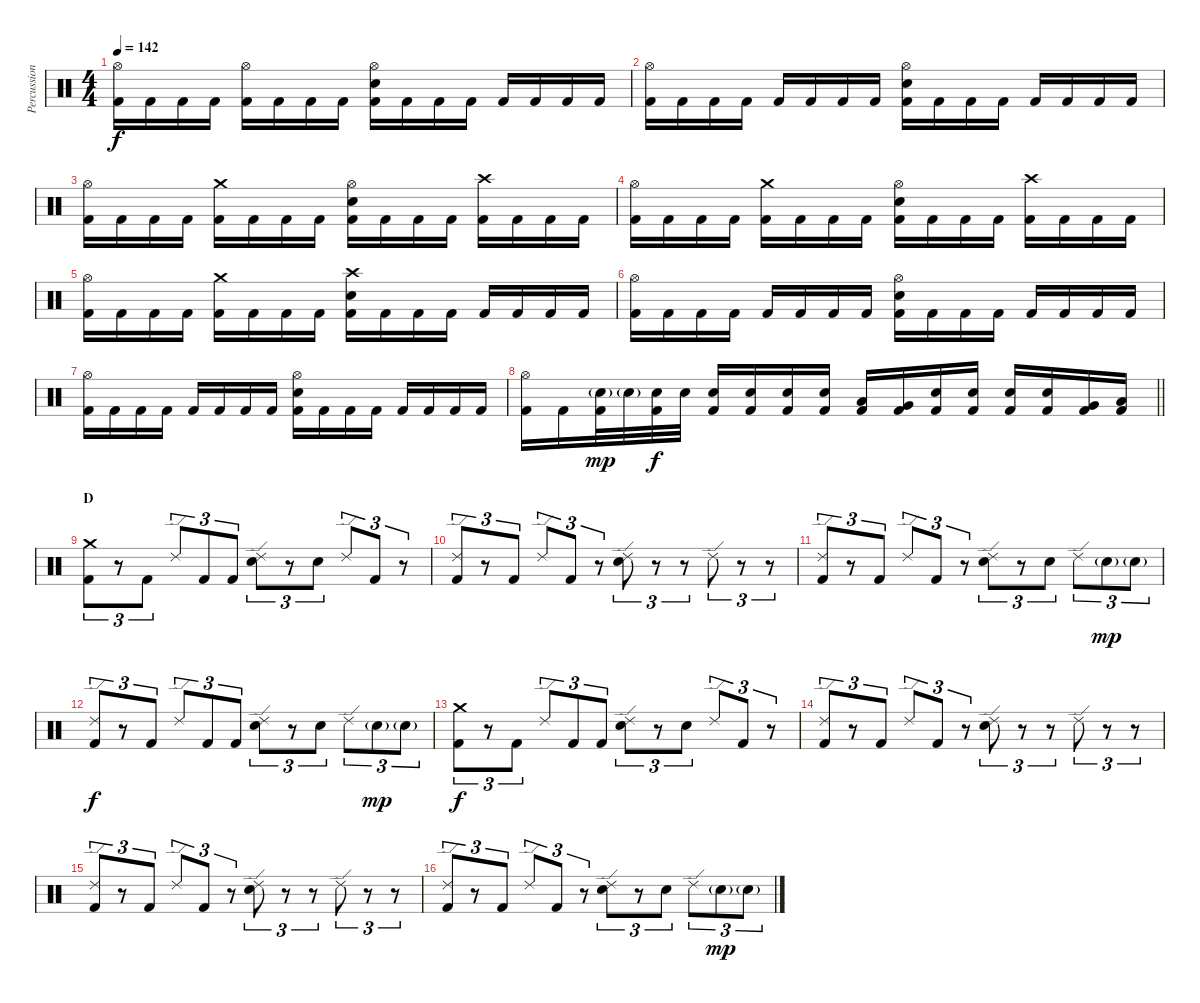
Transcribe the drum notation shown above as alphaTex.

\track ("Percussion" "Percussion") {instrument percussion}
\staff {score}
\articulation defaults
\ts (4 4)
\tempo 142
\clef neutral
\ks c
("Hi-Hat (open)" "Kick (hit) 2").16{dy f} "Kick (hit) 2".16 "Kick (hit) 2".16 "Kick (hit) 2".16 ("Hi-Hat (open)" "Kick (hit) 2").16 "Kick (hit) 2".16 "Kick (hit) 2".16 "Kick (hit) 2".16 ("Hi-Hat (open)" "Electric Snare (hit)" "Kick (hit) 2").16 "Kick (hit) 2".16 "Kick (hit) 2".16 "Kick (hit) 2".16 "Kick (hit) 2".16 "Kick (hit) 2".16 "Kick (hit) 2".16 "Kick (hit) 2".16 |
("Hi-Hat (open)" "Kick (hit) 2").16 "Kick (hit) 2".16 "Kick (hit) 2".16 "Kick (hit) 2".16 "Kick (hit) 2".16 "Kick (hit) 2".16 "Kick (hit) 2".16 "Kick (hit) 2".16 ("Hi-Hat (open)" "Electric Snare (hit)" "Kick (hit) 2").16 "Kick (hit) 2".16 "Kick (hit) 2".16 "Kick (hit) 2".16 "Kick (hit) 2".16 "Kick (hit) 2".16 "Kick (hit) 2".16 "Kick (hit) 2".16 |
("Hi-Hat (open)" "Kick (hit) 2").16 "Kick (hit) 2".16 "Kick (hit) 2".16 "Kick (hit) 2".16 ("Crash medium (hit)" "Kick (hit) 2").16 "Kick (hit) 2".16 "Kick (hit) 2".16 "Kick (hit) 2".16 ("Hi-Hat (open)" "Electric Snare (hit)" "Kick (hit) 2").16 "Kick (hit) 2".16 "Kick (hit) 2".16 "Kick (hit) 2".16 ("Crash high (hit)" "Kick (hit) 2").16 "Kick (hit) 2".16 "Kick (hit) 2".16 "Kick (hit) 2".16 |
("Hi-Hat (open)" "Kick (hit) 2").16 "Kick (hit) 2".16 "Kick (hit) 2".16 "Kick (hit) 2".16 ("Crash medium (hit)" "Kick (hit) 2").16 "Kick (hit) 2".16 "Kick (hit) 2".16 "Kick (hit) 2".16 ("Hi-Hat (open)" "Electric Snare (hit)" "Kick (hit) 2").16 "Kick (hit) 2".16 "Kick (hit) 2".16 "Kick (hit) 2".16 ("Crash high (hit)" "Kick (hit) 2").16 "Kick (hit) 2".16 "Kick (hit) 2".16 "Kick (hit) 2".16 |
("Hi-Hat (open)" "Kick (hit) 2").16 "Kick (hit) 2".16 "Kick (hit) 2".16 "Kick (hit) 2".16 ("Crash medium (hit)" "Kick (hit) 2").16 "Kick (hit) 2".16 "Kick (hit) 2".16 "Kick (hit) 2".16 ("Crash high (hit)" "Electric Snare (hit)" "Kick (hit) 2").16 "Kick (hit) 2".16 "Kick (hit) 2".16 "Kick (hit) 2".16 "Kick (hit) 2".16 "Kick (hit) 2".16 "Kick (hit) 2".16 "Kick (hit) 2".16 |
("Hi-Hat (open)" "Kick (hit) 2").16 "Kick (hit) 2".16 "Kick (hit) 2".16 "Kick (hit) 2".16 "Kick (hit) 2".16 "Kick (hit) 2".16 "Kick (hit) 2".16 "Kick (hit) 2".16 ("Hi-Hat (open)" "Electric Snare (hit)" "Kick (hit) 2").16 "Kick (hit) 2".16 "Kick (hit) 2".16 "Kick (hit) 2".16 "Kick (hit) 2".16 "Kick (hit) 2".16 "Kick (hit) 2".16 "Kick (hit) 2".16 |
("Hi-Hat (open)" "Kick (hit) 2").16 "Kick (hit) 2".16 "Kick (hit) 2".16 "Kick (hit) 2".16 "Kick (hit) 2".16 "Kick (hit) 2".16 "Kick (hit) 2".16 "Kick (hit) 2".16 ("Hi-Hat (open)" "Electric Snare (hit)" "Kick (hit) 2").16 "Kick (hit) 2".16 "Kick (hit) 2".16 "Kick (hit) 2".16 "Kick (hit) 2".16 "Kick (hit) 2".16 "Kick (hit) 2".16 "Kick (hit) 2".16 |
\barLineRight lightlight
("Hi-Hat (open)" "Kick (hit) 2").16 "Kick (hit) 2".16 ("Electric Snare (hit)"{g} "Kick (hit) 2").32{dy mp} "Electric Snare (hit)"{g}.32 ("Electric Snare (hit)" "Kick (hit) 2").32{dy f} "Electric Snare (hit)".32 ("Electric Snare (hit)" "Kick (hit) 2").16 ("Electric Snare (hit)" "Kick (hit) 2").16 ("Electric Snare (hit)" "Kick (hit) 2").16 ("Electric Snare (hit)" "Kick (hit) 2").16 ("Low Tom (hit)" "Kick (hit) 2").16 ("Very Low Tom (hit)" "Kick (hit) 2").16 ("Electric Snare (hit)" "Kick (hit) 2").16 ("Electric Snare (hit)" "Kick (hit) 2").16 ("Electric Snare (hit)" "Kick (hit) 2").16 ("Electric Snare (hit)" "Kick (hit) 2").16 ("Very Low Tom (hit)" "Kick (hit) 2").16 ("Low Floor Tom (hit)" "Kick (hit) 2").16 |
\section ("" "D")
("Crash medium (hit)" "Kick (hit) 2").8{tu (3 2)} r.8{tu (3 2)} "Kick (hit) 2".8{tu (3 2)} "Ride (edge) 2".8{tu (3 2)} "Kick (hit) 2".8{tu (3 2)} "Kick (hit) 2".8{tu (3 2)} ("Ride (edge) 2" "Electric Snare (hit)").8{tu (3 2)} r.8{tu (3 2)} "Electric Snare (hit)".8{tu (3 2)} "Ride (edge) 2".8{tu (3 2)} "Kick (hit) 2".8{tu (3 2)} r.8{tu (3 2)} |
("Ride (edge) 2" "Kick (hit) 2").8{tu (3 2)} r.8{tu (3 2)} "Kick (hit) 2".8{tu (3 2)} "Ride (edge) 2".8{tu (3 2)} "Kick (hit) 2".8{tu (3 2)} r.8{tu (3 2)} ("Ride (edge) 2" "Electric Snare (hit)").8{tu (3 2)} r.8{tu (3 2)} r.8{tu (3 2)} "Ride (edge) 2".8{tu (3 2)} r.8{tu (3 2)} r.8{tu (3 2)} |
("Ride (edge) 2" "Kick (hit) 2").8{tu (3 2)} r.8{tu (3 2)} "Kick (hit) 2".8{tu (3 2)} "Ride (edge) 2".8{tu (3 2)} "Kick (hit) 2".8{tu (3 2)} r.8{tu (3 2)} ("Ride (edge) 2" "Electric Snare (hit)").8{tu (3 2)} r.8{tu (3 2)} "Electric Snare (hit)".8{tu (3 2)} "Ride (edge) 2".8{tu (3 2)} "Electric Snare (hit)"{g}.8{tu (3 2) dy mp} "Electric Snare (hit)"{g}.8{tu (3 2)} |
("Ride (edge) 2" "Kick (hit) 2").8{tu (3 2) dy f} r.8{tu (3 2)} "Kick (hit) 2".8{tu (3 2)} "Ride (edge) 2".8{tu (3 2)} "Kick (hit) 2".8{tu (3 2)} "Kick (hit) 2".8{tu (3 2)} ("Ride (edge) 2" "Electric Snare (hit)").8{tu (3 2)} r.8{tu (3 2)} "Electric Snare (hit)".8{tu (3 2)} "Ride (edge) 2".8{tu (3 2)} "Electric Snare (hit)"{g}.8{tu (3 2) dy mp} "Electric Snare (hit)"{g}.8{tu (3 2)} |
("Crash medium (hit)" "Kick (hit) 2").8{tu (3 2) dy f} r.8{tu (3 2)} "Kick (hit) 2".8{tu (3 2)} "Ride (edge) 2".8{tu (3 2)} "Kick (hit) 2".8{tu (3 2)} "Kick (hit) 2".8{tu (3 2)} ("Ride (edge) 2" "Electric Snare (hit)").8{tu (3 2)} r.8{tu (3 2)} "Electric Snare (hit)".8{tu (3 2)} "Ride (edge) 2".8{tu (3 2)} "Kick (hit) 2".8{tu (3 2)} r.8{tu (3 2)} |
("Ride (edge) 2" "Kick (hit) 2").8{tu (3 2)} r.8{tu (3 2)} "Kick (hit) 2".8{tu (3 2)} "Ride (edge) 2".8{tu (3 2)} "Kick (hit) 2".8{tu (3 2)} r.8{tu (3 2)} ("Ride (edge) 2" "Electric Snare (hit)").8{tu (3 2)} r.8{tu (3 2)} r.8{tu (3 2)} "Ride (edge) 2".8{tu (3 2)} r.8{tu (3 2)} r.8{tu (3 2)} |
("Ride (edge) 2" "Kick (hit) 2").8{tu (3 2)} r.8{tu (3 2)} "Kick (hit) 2".8{tu (3 2)} "Ride (edge) 2".8{tu (3 2)} "Kick (hit) 2".8{tu (3 2)} r.8{tu (3 2)} ("Ride (edge) 2" "Electric Snare (hit)").8{tu (3 2)} r.8{tu (3 2)} r.8{tu (3 2)} "Ride (edge) 2".8{tu (3 2)} r.8{tu (3 2)} r.8{tu (3 2)} |
("Ride (edge) 2" "Kick (hit) 2").8{tu (3 2)} r.8{tu (3 2)} "Kick (hit) 2".8{tu (3 2)} "Ride (edge) 2".8{tu (3 2)} "Kick (hit) 2".8{tu (3 2)} r.8{tu (3 2)} ("Ride (edge) 2" "Electric Snare (hit)").8{tu (3 2)} r.8{tu (3 2)} "Electric Snare (hit)".8{tu (3 2)} "Ride (edge) 2".8{tu (3 2)} "Electric Snare (hit)"{g}.8{tu (3 2) dy mp} "Electric Snare (hit)"{g}.8{tu (3 2)}
